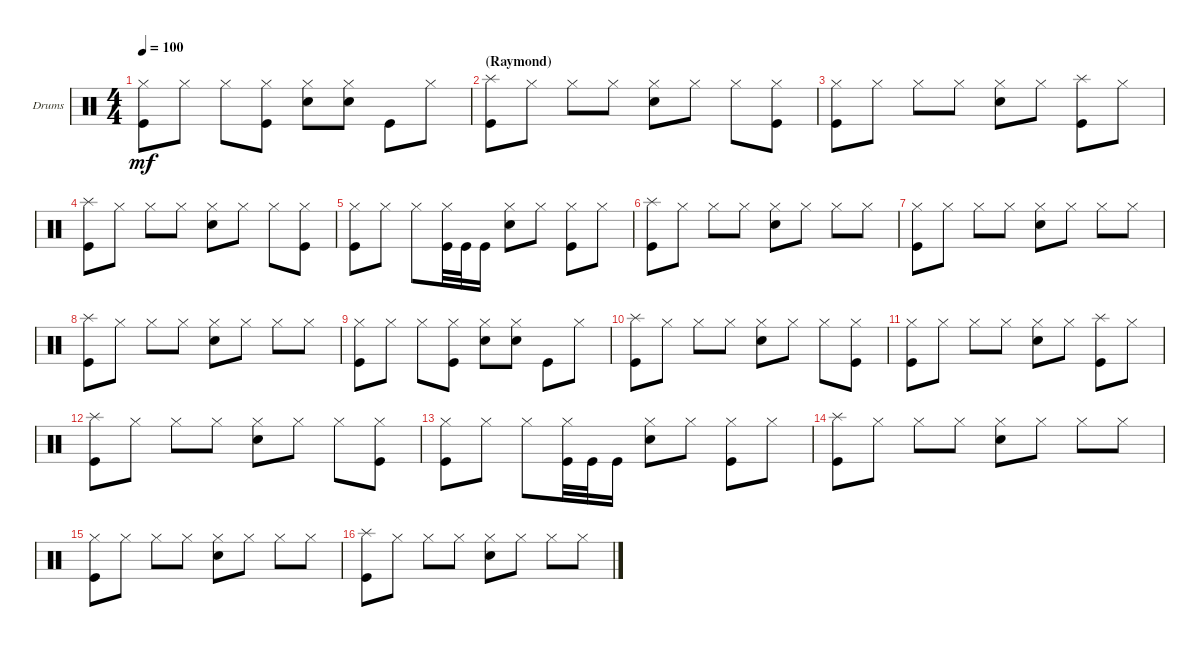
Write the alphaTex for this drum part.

\bracketExtendMode groupsimilarinstruments
\firstSystemTrackNameOrientation horizontal
\otherSystemsTrackNameOrientation horizontal
\track ("Drumkit" "Drums") {instrument percussion}
\staff {score}
\articulation defaults
\ts (4 4)
\tempo 100
\clef neutral
\ks c
("Kick (hit)" "Hi-Hat (closed)").8{dy mf} "Hi-Hat (closed)".8 "Hi-Hat (closed)".8 ("Kick (hit)" "Hi-Hat (closed)").8 ("Snare (hit) 2" "Hi-Hat (closed)").8 ("Snare (hit) 2" "Hi-Hat (closed)").8 "Kick (hit)".8 "Hi-Hat (closed)".8 |
\section ("" "(Raymond)")
("Splash (hit)" "Kick (hit)").8 "Hi-Hat (closed)".8 "Hi-Hat (closed)".8 "Hi-Hat (closed)".8 ("Snare (hit) 2" "Hi-Hat (closed)").8 "Hi-Hat (closed)".8 "Hi-Hat (closed)".8 ("Hi-Hat (closed)" "Kick (hit)").8 |
("Kick (hit)" "Hi-Hat (closed)").8 "Hi-Hat (closed)".8 "Hi-Hat (closed)".8 "Hi-Hat (closed)".8 ("Snare (hit) 2" "Hi-Hat (closed)").8 "Hi-Hat (closed)".8 ("Splash (hit)" "Kick (hit)").8 "Hi-Hat (closed)".8 |
("Splash (hit)" "Kick (hit)").8 "Hi-Hat (closed)".8 "Hi-Hat (closed)".8 "Hi-Hat (closed)".8 ("Snare (hit) 2" "Hi-Hat (closed)").8 "Hi-Hat (closed)".8 "Hi-Hat (closed)".8 ("Hi-Hat (closed)" "Kick (hit)").8 |
("Kick (hit)" "Hi-Hat (closed)").8 "Hi-Hat (closed)".8 "Hi-Hat (closed)".8 ("Kick (hit)" "Hi-Hat (closed)").32 "Kick (hit)".32 "Kick (hit)".16 ("Snare (hit) 2" "Hi-Hat (closed)").8 "Hi-Hat (closed)".8 ("Kick (hit)" "Hi-Hat (closed)").8 "Hi-Hat (closed)".8 |
("Splash (hit)" "Kick (hit)").8 "Hi-Hat (closed)".8 "Hi-Hat (closed)".8 "Hi-Hat (closed)".8 ("Snare (hit) 2" "Hi-Hat (closed)").8 "Hi-Hat (closed)".8 "Hi-Hat (closed)".8 "Hi-Hat (closed)".8 |
("Kick (hit)" "Hi-Hat (closed)").8 "Hi-Hat (closed)".8 "Hi-Hat (closed)".8 "Hi-Hat (closed)".8 ("Snare (hit) 2" "Hi-Hat (closed)").8 "Hi-Hat (closed)".8 "Hi-Hat (closed)".8 "Hi-Hat (closed)".8 |
("Splash (hit)" "Kick (hit)").8 "Hi-Hat (closed)".8 "Hi-Hat (closed)".8 "Hi-Hat (closed)".8 ("Snare (hit) 2" "Hi-Hat (closed)").8 "Hi-Hat (closed)".8 "Hi-Hat (closed)".8 "Hi-Hat (closed)".8 |
("Kick (hit)" "Hi-Hat (closed)").8 "Hi-Hat (closed)".8 "Hi-Hat (closed)".8 ("Kick (hit)" "Hi-Hat (closed)").8 ("Snare (hit) 2" "Hi-Hat (closed)").8 ("Snare (hit) 2" "Hi-Hat (closed)").8 "Kick (hit)".8 "Hi-Hat (closed)".8 |
("Splash (hit)" "Kick (hit)").8 "Hi-Hat (closed)".8 "Hi-Hat (closed)".8 "Hi-Hat (closed)".8 ("Snare (hit) 2" "Hi-Hat (closed)").8 "Hi-Hat (closed)".8 "Hi-Hat (closed)".8 ("Hi-Hat (closed)" "Kick (hit)").8 |
("Kick (hit)" "Hi-Hat (closed)").8 "Hi-Hat (closed)".8 "Hi-Hat (closed)".8 "Hi-Hat (closed)".8 ("Snare (hit) 2" "Hi-Hat (closed)").8 "Hi-Hat (closed)".8 ("Splash (hit)" "Kick (hit)").8 "Hi-Hat (closed)".8 |
("Splash (hit)" "Kick (hit)").8 "Hi-Hat (closed)".8 "Hi-Hat (closed)".8 "Hi-Hat (closed)".8 ("Snare (hit) 2" "Hi-Hat (closed)").8 "Hi-Hat (closed)".8 "Hi-Hat (closed)".8 ("Hi-Hat (closed)" "Kick (hit)").8 |
("Kick (hit)" "Hi-Hat (closed)").8 "Hi-Hat (closed)".8 "Hi-Hat (closed)".8 ("Kick (hit)" "Hi-Hat (closed)").32 "Kick (hit)".32 "Kick (hit)".16 ("Snare (hit) 2" "Hi-Hat (closed)").8 "Hi-Hat (closed)".8 ("Kick (hit)" "Hi-Hat (closed)").8 "Hi-Hat (closed)".8 |
("Splash (hit)" "Kick (hit)").8 "Hi-Hat (closed)".8 "Hi-Hat (closed)".8 "Hi-Hat (closed)".8 ("Snare (hit) 2" "Hi-Hat (closed)").8 "Hi-Hat (closed)".8 "Hi-Hat (closed)".8 "Hi-Hat (closed)".8 |
("Kick (hit)" "Hi-Hat (closed)").8 "Hi-Hat (closed)".8 "Hi-Hat (closed)".8 "Hi-Hat (closed)".8 ("Snare (hit) 2" "Hi-Hat (closed)").8 "Hi-Hat (closed)".8 "Hi-Hat (closed)".8 "Hi-Hat (closed)".8 |
("Splash (hit)" "Kick (hit)").8 "Hi-Hat (closed)".8 "Hi-Hat (closed)".8 "Hi-Hat (closed)".8 ("Snare (hit) 2" "Hi-Hat (closed)").8 "Hi-Hat (closed)".8 "Hi-Hat (closed)".8 "Hi-Hat (closed)".8
